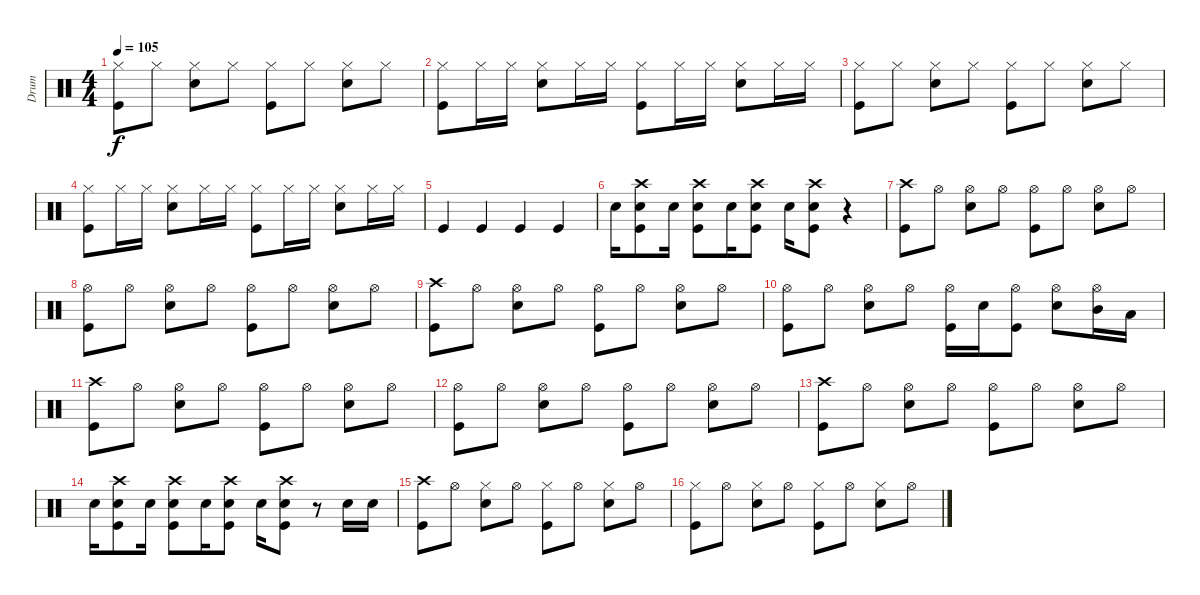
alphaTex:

\track ("Drum" "Drum") {instrument percussion}
\staff {score}
\articulation defaults
\ts (4 4)
\tempo 105
\clef neutral
\ks c
("Hi-Hat (closed)" "Kick (hit)").8{dy f} "Hi-Hat (closed)".8 ("Hi-Hat (closed)" "Snare (hit) 2").8 "Hi-Hat (closed)".8 ("Hi-Hat (closed)" "Kick (hit)").8 "Hi-Hat (closed)".8 ("Hi-Hat (closed)" "Snare (hit) 2").8 "Hi-Hat (closed)".8 |
("Hi-Hat (closed)" "Kick (hit)").8 "Hi-Hat (closed)".16 "Hi-Hat (closed)".16 ("Hi-Hat (closed)" "Snare (hit) 2").8 "Hi-Hat (closed)".16 "Hi-Hat (closed)".16 ("Hi-Hat (closed)" "Kick (hit)").8 "Hi-Hat (closed)".16 "Hi-Hat (closed)".16 ("Hi-Hat (closed)" "Snare (hit) 2").8 "Hi-Hat (closed)".16 "Hi-Hat (closed)".16 |
("Hi-Hat (closed)" "Kick (hit)").8 "Hi-Hat (closed)".8 ("Hi-Hat (closed)" "Snare (hit) 2").8 "Hi-Hat (closed)".8 ("Hi-Hat (closed)" "Kick (hit)").8 "Hi-Hat (closed)".8 ("Hi-Hat (closed)" "Snare (hit) 2").8 "Hi-Hat (closed)".8 |
("Hi-Hat (closed)" "Kick (hit)").8 "Hi-Hat (closed)".16 "Hi-Hat (closed)".16 ("Hi-Hat (closed)" "Snare (hit) 2").8 "Hi-Hat (closed)".16 "Hi-Hat (closed)".16 ("Hi-Hat (closed)" "Kick (hit)").8 "Hi-Hat (closed)".16 "Hi-Hat (closed)".16 ("Hi-Hat (closed)" "Snare (hit) 2").8 "Hi-Hat (closed)".16 "Hi-Hat (closed)".16 |
"Kick (hit)".4 "Kick (hit)".4 "Kick (hit)".4 "Kick (hit)".4 |
"Snare (hit) 2".16 ("Crash high (hit)" "Snare (hit) 2" "Kick (hit)").8 "Snare (hit) 2".16 ("Crash high (hit)" "Snare (hit) 2" "Kick (hit)").8 "Snare (hit) 2".16 ("Crash high (hit)" "Snare (hit) 2" "Kick (hit)").8 "Snare (hit) 2".16 ("Crash high (hit)" "Snare (hit) 2" "Kick (hit)").8 r.4 |
("Crash high (hit)" "Kick (hit)").8 "Hi-Hat (open)".8 ("Hi-Hat (open)" "Snare (hit) 2").8 "Hi-Hat (open)".8 ("Hi-Hat (open)" "Kick (hit)").8 "Hi-Hat (open)".8 ("Hi-Hat (open)" "Snare (hit) 2").8 "Hi-Hat (open)".8 |
("Hi-Hat (open)" "Kick (hit)").8 "Hi-Hat (open)".8 ("Hi-Hat (open)" "Snare (hit) 2").8 "Hi-Hat (open)".8 ("Hi-Hat (open)" "Kick (hit)").8 "Hi-Hat (open)".8 ("Hi-Hat (open)" "Snare (hit) 2").8 "Hi-Hat (open)".8 |
("Crash high (hit)" "Kick (hit)").8 "Hi-Hat (open)".8 ("Hi-Hat (open)" "Snare (hit) 2").8 "Hi-Hat (open)".8 ("Hi-Hat (open)" "Kick (hit)").8 "Hi-Hat (open)".8 ("Hi-Hat (open)" "Snare (hit) 2").8 "Hi-Hat (open)".8 |
("Hi-Hat (open)" "Kick (hit)").8 "Hi-Hat (open)".8 ("Hi-Hat (open)" "Snare (hit) 2").8 "Hi-Hat (open)".8 ("Hi-Hat (open)" "Kick (hit)").16 "Snare (hit) 2".16 ("Hi-Hat (open)" "Kick (hit)").8 ("Hi-Hat (open)" "Snare (hit) 2").8 ("Hi-Hat (open)" "Mid Tom (hit)").16 "Low Tom (hit)".16 |
("Crash high (hit)" "Kick (hit)").8 "Hi-Hat (open)".8 ("Hi-Hat (open)" "Snare (hit) 2").8 "Hi-Hat (open)".8 ("Hi-Hat (open)" "Kick (hit)").8 "Hi-Hat (open)".8 ("Hi-Hat (open)" "Snare (hit) 2").8 "Hi-Hat (open)".8 |
("Hi-Hat (open)" "Kick (hit)").8 "Hi-Hat (open)".8 ("Hi-Hat (open)" "Snare (hit) 2").8 "Hi-Hat (open)".8 ("Hi-Hat (open)" "Kick (hit)").8 "Hi-Hat (open)".8 ("Hi-Hat (open)" "Snare (hit) 2").8 "Hi-Hat (open)".8 |
("Crash high (hit)" "Kick (hit)").8 "Hi-Hat (open)".8 ("Hi-Hat (open)" "Snare (hit) 2").8 "Hi-Hat (open)".8 ("Hi-Hat (open)" "Kick (hit)").8 "Hi-Hat (open)".8 ("Hi-Hat (open)" "Snare (hit) 2").8 "Hi-Hat (open)".8 |
"Snare (hit) 2".16 ("Crash high (hit)" "Snare (hit) 2" "Kick (hit)").8 "Snare (hit) 2".16 ("Crash high (hit)" "Snare (hit) 2" "Kick (hit)").8 "Snare (hit) 2".16 ("Crash high (hit)" "Snare (hit) 2" "Kick (hit)").8 "Snare (hit) 2".16 ("Crash high (hit)" "Snare (hit) 2" "Kick (hit)").8 r.8 "Snare (hit) 2".16 "Snare (hit) 2".16 |
("Crash high (hit)" "Kick (hit)").8 "Hi-Hat (open)".8 ("Hi-Hat (closed)" "Snare (hit) 2").8 "Hi-Hat (open)".8 ("Hi-Hat (closed)" "Kick (hit)").8 "Hi-Hat (open)".8 ("Hi-Hat (closed)" "Snare (hit) 2").8 "Hi-Hat (open)".8 |
("Hi-Hat (closed)" "Kick (hit)").8 "Hi-Hat (open)".8 ("Hi-Hat (closed)" "Snare (hit) 2").8 "Hi-Hat (open)".8 ("Hi-Hat (closed)" "Kick (hit)").8 "Hi-Hat (open)".8 ("Hi-Hat (closed)" "Snare (hit) 2").8 "Hi-Hat (open)".8
